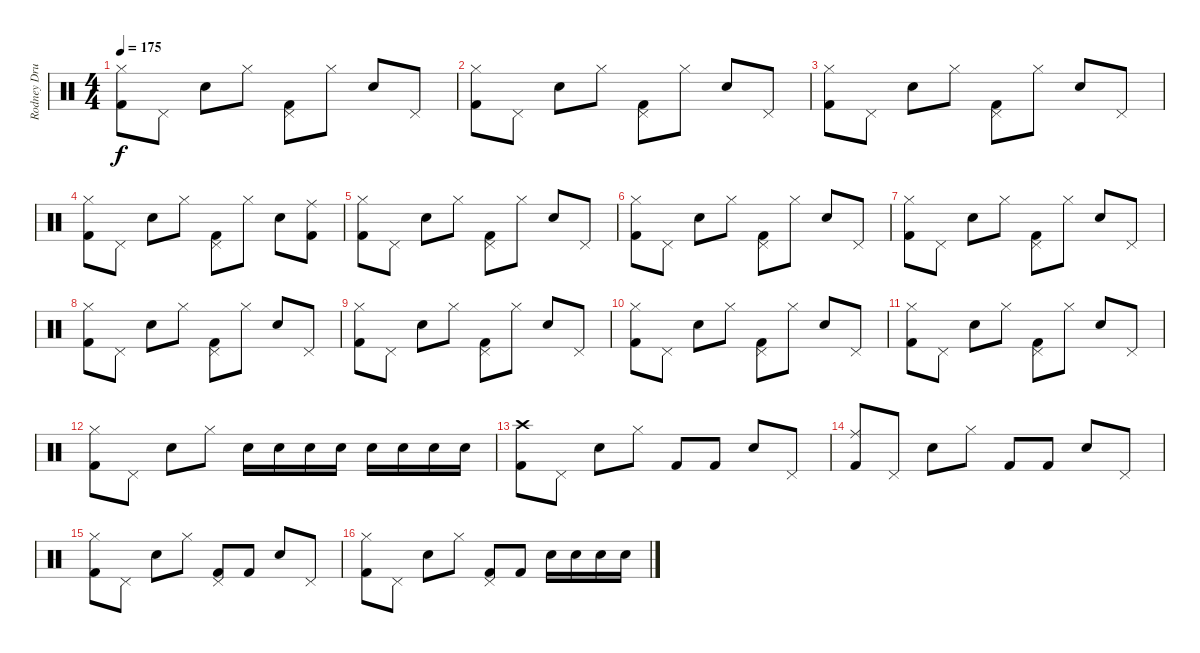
\track ("Rodney Drums" "Rodney Dru") {instrument percussion}
\staff {score}
\articulation defaults
\ts (4 4)
\tempo 175
\clef neutral
\ks c
("Hi-Hat (closed)" "Kick (hit) 2").8{dy f} "Pedal Hi-Hat (hit)".8 "Snare (hit) 2".8 "Hi-Hat (closed)".8 ("Pedal Hi-Hat (hit)" "Kick (hit) 2").8 "Hi-Hat (closed)".8 "Snare (hit) 2".8 "Pedal Hi-Hat (hit)".8 |
("Hi-Hat (closed)" "Kick (hit) 2").8 "Pedal Hi-Hat (hit)".8 "Snare (hit) 2".8 "Hi-Hat (closed)".8 ("Pedal Hi-Hat (hit)" "Kick (hit) 2").8 "Hi-Hat (closed)".8 "Snare (hit) 2".8 "Pedal Hi-Hat (hit)".8 |
("Hi-Hat (closed)" "Kick (hit) 2").8 "Pedal Hi-Hat (hit)".8 "Snare (hit) 2".8 "Hi-Hat (closed)".8 ("Pedal Hi-Hat (hit)" "Kick (hit) 2").8 "Hi-Hat (closed)".8 "Snare (hit) 2".8 "Pedal Hi-Hat (hit)".8 |
("Hi-Hat (closed)" "Kick (hit) 2").8 "Pedal Hi-Hat (hit)".8 "Snare (hit) 2".8 "Hi-Hat (closed)".8 ("Pedal Hi-Hat (hit)" "Kick (hit) 2").8 "Hi-Hat (closed)".8 "Snare (hit) 2".8 ("Ride (middle)" "Kick (hit) 2").8 |
("Hi-Hat (closed)" "Kick (hit) 2").8 "Pedal Hi-Hat (hit)".8 "Snare (hit) 2".8 "Hi-Hat (closed)".8 ("Pedal Hi-Hat (hit)" "Kick (hit) 2").8 "Hi-Hat (closed)".8 "Snare (hit) 2".8 "Pedal Hi-Hat (hit)".8 |
("Hi-Hat (closed)" "Kick (hit) 2").8 "Pedal Hi-Hat (hit)".8 "Snare (hit) 2".8 "Hi-Hat (closed)".8 ("Pedal Hi-Hat (hit)" "Kick (hit) 2").8 "Hi-Hat (closed)".8 "Snare (hit) 2".8 "Pedal Hi-Hat (hit)".8 |
("Hi-Hat (closed)" "Kick (hit) 2").8 "Pedal Hi-Hat (hit)".8 "Snare (hit) 2".8 "Hi-Hat (closed)".8 ("Pedal Hi-Hat (hit)" "Kick (hit) 2").8 "Hi-Hat (closed)".8 "Snare (hit) 2".8 "Pedal Hi-Hat (hit)".8 |
("Hi-Hat (closed)" "Kick (hit) 2").8 "Pedal Hi-Hat (hit)".8 "Snare (hit) 2".8 "Hi-Hat (closed)".8 ("Pedal Hi-Hat (hit)" "Kick (hit) 2").8 "Hi-Hat (closed)".8 "Snare (hit) 2".8 "Pedal Hi-Hat (hit)".8 |
("Hi-Hat (closed)" "Kick (hit) 2").8 "Pedal Hi-Hat (hit)".8 "Snare (hit) 2".8 "Hi-Hat (closed)".8 ("Pedal Hi-Hat (hit)" "Kick (hit) 2").8 "Hi-Hat (closed)".8 "Snare (hit) 2".8 "Pedal Hi-Hat (hit)".8 |
("Hi-Hat (closed)" "Kick (hit) 2").8 "Pedal Hi-Hat (hit)".8 "Snare (hit) 2".8 "Hi-Hat (closed)".8 ("Pedal Hi-Hat (hit)" "Kick (hit) 2").8 "Hi-Hat (closed)".8 "Snare (hit) 2".8 "Pedal Hi-Hat (hit)".8 |
("Hi-Hat (closed)" "Kick (hit) 2").8 "Pedal Hi-Hat (hit)".8 "Snare (hit) 2".8 "Hi-Hat (closed)".8 ("Pedal Hi-Hat (hit)" "Kick (hit) 2").8 "Hi-Hat (closed)".8 "Snare (hit) 2".8 "Pedal Hi-Hat (hit)".8 |
("Hi-Hat (closed)" "Kick (hit) 2").8 "Pedal Hi-Hat (hit)".8 "Snare (hit) 2".8 "Hi-Hat (closed)".8 "Electric Snare (hit)".16 "Electric Snare (hit)".16 "Electric Snare (hit)".16 "Electric Snare (hit)".16 "Electric Snare (hit)".16 "Electric Snare (hit)".16 "Electric Snare (hit)".16 "Electric Snare (hit)".16 |
("Crash high (hit)" "Kick (hit) 2").8 "Pedal Hi-Hat (hit)".8 "Electric Snare (hit)".8 "Hi-Hat (closed)".8 "Kick (hit) 2".8 "Kick (hit) 2".8 "Electric Snare (hit)".8 "Pedal Hi-Hat (hit)".8 |
("Ride (middle)" "Kick (hit) 2").8 "Pedal Hi-Hat (hit)".8 "Electric Snare (hit)".8 "Hi-Hat (closed)".8 "Kick (hit) 2".8 "Kick (hit) 2".8 "Electric Snare (hit)".8 "Pedal Hi-Hat (hit)".8 |
("Hi-Hat (closed)" "Kick (hit) 2").8 "Pedal Hi-Hat (hit)".8 "Electric Snare (hit)".8 "Hi-Hat (closed)".8 ("Pedal Hi-Hat (hit)" "Kick (hit) 2").8 "Kick (hit) 2".8 "Electric Snare (hit)".8 "Pedal Hi-Hat (hit)".8 |
("Hi-Hat (closed)" "Kick (hit) 2").8 "Pedal Hi-Hat (hit)".8 "Electric Snare (hit)".8 "Hi-Hat (closed)".8 ("Pedal Hi-Hat (hit)" "Kick (hit) 2").8 "Kick (hit) 2".8 "Electric Snare (hit)".16 "Electric Snare (hit)".16 "Electric Snare (hit)".16 "Electric Snare (hit)".16
